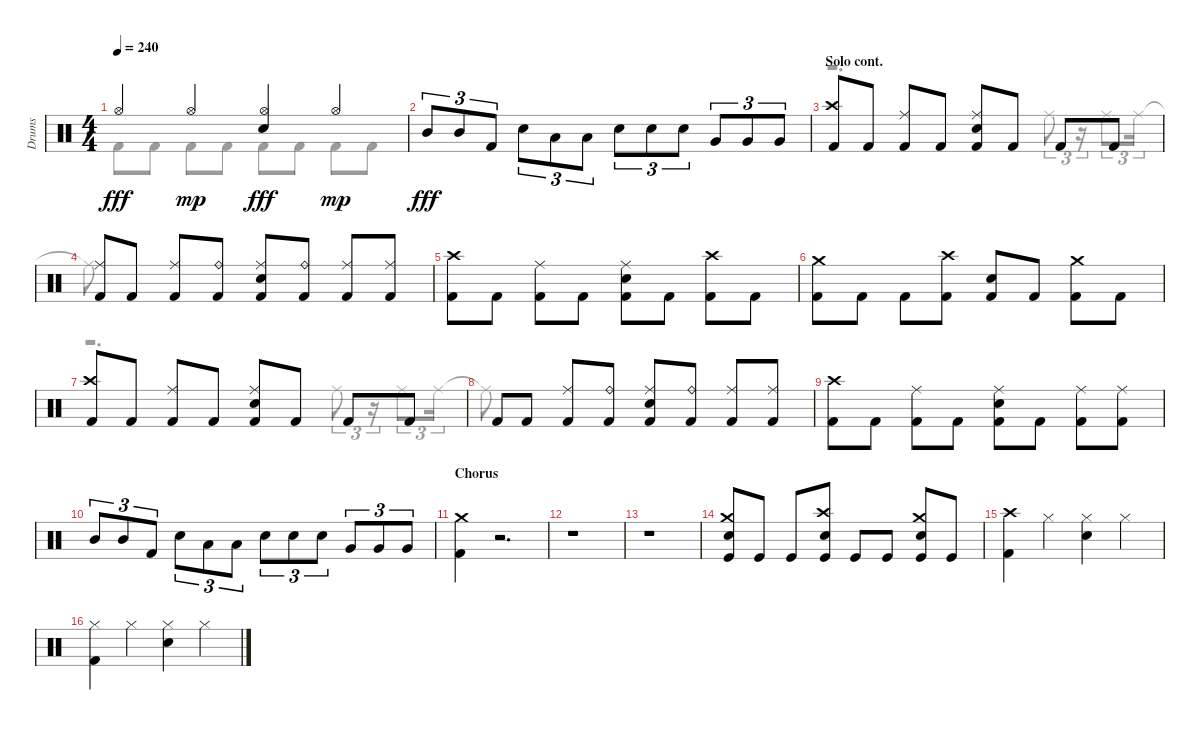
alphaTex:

\track ("Drums" "Drums") {instrument percussion}
\staff {score}
\articulation defaults
\voice
\ts (4 4)
\tempo 240
\clef neutral
\ks aminor "Hi-Hat (open)".4{dy fff} "Hi-Hat (open)".4{dy mp}
("Hi-Hat (open)" "Snare (hit) 2").4{dy fff} "Hi-Hat (open)".4{dy mp} |
"Mid Tom (hit)".8{tu (3 2) dy fff} "Mid Tom (hit)".8{tu (3 2)} "Kick (hit) 2".8{tu (3 2)} "Snare (hit) 2".8{tu (3 2)} "Low Tom (hit)".8{tu (3 2)} "Low Tom (hit)".8{tu (3 2)} "Snare (hit) 2".8{tu (3 2)} "Snare (hit) 2".8{tu (3 2)} "Snare (hit) 2".8{tu (3 2)} "Very Low Tom (hit)".8{tu (3 2)} "Very Low Tom (hit)".8{tu (3 2)} "Very Low Tom (hit)".8{tu (3 2)} |
\section ("" "Solo cont.")
("Crash high (hit)" "Kick (hit) 2").8 "Kick (hit) 2".8 ("Ride (middle)" "Kick (hit) 2").8 "Kick (hit) 2".8 ("Snare (hit) 2" "Ride (middle)" "Kick (hit) 2").8 "Kick (hit) 2".8 "Kick (hit) 2".8 "Kick (hit) 2".8 |
("Ride (middle)" "Kick (hit) 2").8 "Kick (hit) 2".8 ("Ride (middle)" "Kick (hit) 2").8 ("Kick (hit) 2" "Ride (bell)").8 ("Snare (hit) 2" "Ride (middle)" "Kick (hit) 2").8 ("Kick (hit) 2" "Ride (bell)").8 ("Kick (hit) 2" "Ride (middle)").8 ("Ride (middle)" "Kick (hit) 2").8 |
("Kick (hit) 2" "Crash high (hit)").8 "Kick (hit) 2".8 ("Ride (middle)" "Kick (hit) 2").8 "Kick (hit) 2".8 ("Kick (hit) 2" "Ride (middle)" "Snare (hit) 2").8 "Kick (hit) 2".8 ("Kick (hit) 2" "Crash high (hit)").8 "Kick (hit) 2".8 |
("Crash medium (hit)" "Kick (hit) 2").8 "Kick (hit) 2".8 "Kick (hit) 2".8 ("Kick (hit) 2" "Crash high (hit)").8 ("Snare (hit) 2" "Kick (hit) 2").8 "Kick (hit) 2".8 ("Crash medium (hit)" "Kick (hit) 2").8 "Kick (hit) 2".8 |
("Kick (hit) 2" "Crash high (hit)").8 "Kick (hit) 2".8 ("Kick (hit) 2" "Ride (middle)").8 "Kick (hit) 2".8 ("Snare (hit) 2" "Ride (middle)" "Kick (hit) 2").8 "Kick (hit) 2".8 "Kick (hit) 2".8 "Kick (hit) 2".8 |
"Kick (hit) 2".8 "Kick (hit) 2".8 ("Kick (hit) 2" "Ride (middle)").8 ("Kick (hit) 2" "Ride (bell)").8 ("Snare (hit) 2" "Kick (hit) 2" "Ride (middle)").8 ("Kick (hit) 2" "Ride (bell)").8 ("Ride (middle)" "Kick (hit) 2").8 ("Ride (middle)" "Kick (hit) 2").8 |
("Crash high (hit)" "Kick (hit) 2").8 "Kick (hit) 2".8 ("Ride (middle)" "Kick (hit) 2").8 "Kick (hit) 2".8 ("Snare (hit) 2" "Kick (hit) 2" "Ride (middle)").8 "Kick (hit) 2".8 ("Ride (middle)" "Kick (hit) 2").8 ("Ride (middle)" "Kick (hit) 2").8 |
"Mid Tom (hit)".8{tu (3 2)} "Mid Tom (hit)".8{tu (3 2)} "Kick (hit) 2".8{tu (3 2)} "Snare (hit) 2".8{tu (3 2)} "Low Tom (hit)".8{tu (3 2)} "Low Tom (hit)".8{tu (3 2)} "Snare (hit) 2".8{tu (3 2)} "Snare (hit) 2".8{tu (3 2)} "Snare (hit) 2".8{tu (3 2)} "Very Low Tom (hit)".8{tu (3 2)} "Very Low Tom (hit)".8{tu (3 2)} "Very Low Tom (hit)".8{tu (3 2)} |
\section ("" "Chorus")
("Kick (hit) 2" "Crash medium (hit)").4 r.2{d} |
r.1 |
r.1 |
("Snare (hit) 2" "Crash medium (hit)" "Kick (hit)").8 "Kick (hit)".8 "Kick (hit)".8 ("Kick (hit)" "Snare (hit) 2" "Crash high (hit)").8 "Kick (hit)".8 "Kick (hit)".8 ("Kick (hit)" "Crash medium (hit)" "Snare (hit) 2").8 "Kick (hit)".8 |
("Kick (hit) 2" "Crash high (hit)").4 "Hi-Hat (closed)".4 ("Snare (hit) 2" "Hi-Hat (closed)").4 "Hi-Hat (closed)".4 |
("Hi-Hat (closed)" "Kick (hit) 2").4 "Hi-Hat (closed)".4 ("Snare (hit) 2" "Hi-Hat (closed)").4 "Hi-Hat (closed)".4
\voice
\clef neutral
\ottava regular
\simile none
\ks aminor "Kick (hit) 2".8{dy fff} "Kick (hit) 2".8 "Kick (hit) 2".8 "Kick (hit) 2".8 "Kick (hit) 2".8 "Kick (hit) 2".8 "Kick (hit) 2".8 "Kick (hit) 2".8
|
|
r.2{d} "Ride (middle)".8{tu (3 2)} r.16{tu (3 2)} "Ride (middle)".8{tu (3 2)} "Ride (middle)".16{tu (3 2)} |
"Ride (middle)"{t}.8 |
|
|
r.2{d} "Ride (middle)".8{tu (3 2)} r.16{tu (3 2)} "Ride (middle)".8{tu (3 2)} "Ride (middle)".16{tu (3 2)} |
"Ride (middle)"{t}.8 |
|
|
|
|
|
|
|
